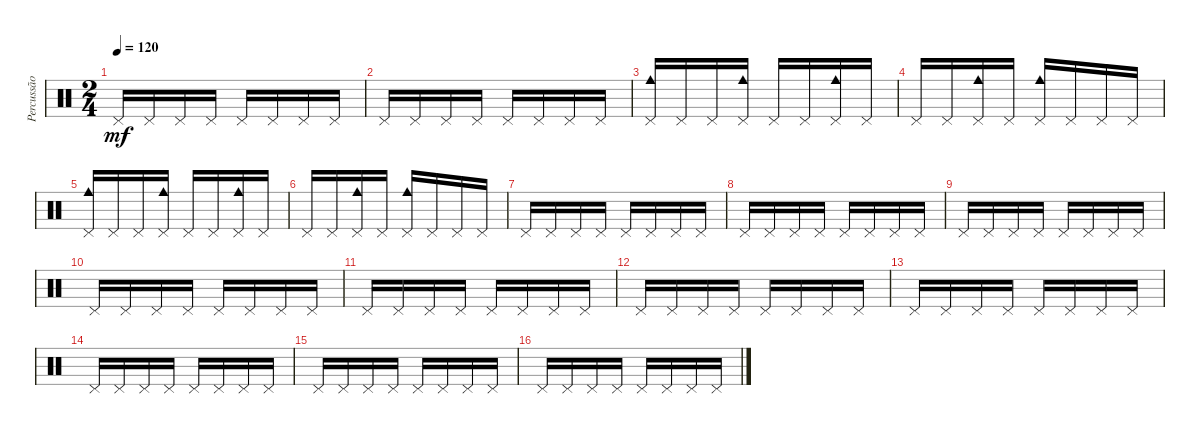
\track ("Percussão" "Percussão") {instrument percussion}
\staff {score}
\articulation defaults
\ts (2 4)
\tempo 120
\clef neutral
\ks c "Pedal Hi-Hat (hit)".16{dy mf} "Pedal Hi-Hat (hit)".16 "Pedal Hi-Hat (hit)".16 "Pedal Hi-Hat (hit)".16 "Pedal Hi-Hat (hit)".16 "Pedal Hi-Hat (hit)".16 "Pedal Hi-Hat (hit)".16 "Pedal Hi-Hat (hit)".16
|
"Pedal Hi-Hat (hit)".16 "Pedal Hi-Hat (hit)".16 "Pedal Hi-Hat (hit)".16 "Pedal Hi-Hat (hit)".16 "Pedal Hi-Hat (hit)".16 "Pedal Hi-Hat (hit)".16 "Pedal Hi-Hat (hit)".16 "Pedal Hi-Hat (hit)".16 |
("Pedal Hi-Hat (hit)" "Cowbell medium (hit)").16 "Pedal Hi-Hat (hit)".16 "Pedal Hi-Hat (hit)".16 ("Pedal Hi-Hat (hit)" "Cowbell medium (hit)").16 "Pedal Hi-Hat (hit)".16 "Pedal Hi-Hat (hit)".16 ("Pedal Hi-Hat (hit)" "Cowbell medium (hit)").16 "Pedal Hi-Hat (hit)".16 |
"Pedal Hi-Hat (hit)".16 "Pedal Hi-Hat (hit)".16 ("Pedal Hi-Hat (hit)" "Cowbell medium (hit)").16 "Pedal Hi-Hat (hit)".16 ("Pedal Hi-Hat (hit)" "Cowbell medium (hit)").16 "Pedal Hi-Hat (hit)".16 "Pedal Hi-Hat (hit)".16 "Pedal Hi-Hat (hit)".16 |
("Pedal Hi-Hat (hit)" "Cowbell medium (hit)").16 "Pedal Hi-Hat (hit)".16 "Pedal Hi-Hat (hit)".16 ("Pedal Hi-Hat (hit)" "Cowbell medium (hit)").16 "Pedal Hi-Hat (hit)".16 "Pedal Hi-Hat (hit)".16 ("Pedal Hi-Hat (hit)" "Cowbell medium (hit)").16 "Pedal Hi-Hat (hit)".16 |
"Pedal Hi-Hat (hit)".16 "Pedal Hi-Hat (hit)".16 ("Pedal Hi-Hat (hit)" "Cowbell medium (hit)").16 "Pedal Hi-Hat (hit)".16 ("Pedal Hi-Hat (hit)" "Cowbell medium (hit)").16 "Pedal Hi-Hat (hit)".16 "Pedal Hi-Hat (hit)".16 "Pedal Hi-Hat (hit)".16 |
"Pedal Hi-Hat (hit)".16 "Pedal Hi-Hat (hit)".16 "Pedal Hi-Hat (hit)".16 "Pedal Hi-Hat (hit)".16 "Pedal Hi-Hat (hit)".16 "Pedal Hi-Hat (hit)".16 "Pedal Hi-Hat (hit)".16 "Pedal Hi-Hat (hit)".16 |
"Pedal Hi-Hat (hit)".16 "Pedal Hi-Hat (hit)".16 "Pedal Hi-Hat (hit)".16 "Pedal Hi-Hat (hit)".16 "Pedal Hi-Hat (hit)".16 "Pedal Hi-Hat (hit)".16 "Pedal Hi-Hat (hit)".16 "Pedal Hi-Hat (hit)".16 |
"Pedal Hi-Hat (hit)".16 "Pedal Hi-Hat (hit)".16 "Pedal Hi-Hat (hit)".16 "Pedal Hi-Hat (hit)".16 "Pedal Hi-Hat (hit)".16 "Pedal Hi-Hat (hit)".16 "Pedal Hi-Hat (hit)".16 "Pedal Hi-Hat (hit)".16 |
"Pedal Hi-Hat (hit)".16 "Pedal Hi-Hat (hit)".16 "Pedal Hi-Hat (hit)".16 "Pedal Hi-Hat (hit)".16 "Pedal Hi-Hat (hit)".16 "Pedal Hi-Hat (hit)".16 "Pedal Hi-Hat (hit)".16 "Pedal Hi-Hat (hit)".16 |
"Pedal Hi-Hat (hit)".16 "Pedal Hi-Hat (hit)".16 "Pedal Hi-Hat (hit)".16 "Pedal Hi-Hat (hit)".16 "Pedal Hi-Hat (hit)".16 "Pedal Hi-Hat (hit)".16 "Pedal Hi-Hat (hit)".16 "Pedal Hi-Hat (hit)".16 |
"Pedal Hi-Hat (hit)".16 "Pedal Hi-Hat (hit)".16 "Pedal Hi-Hat (hit)".16 "Pedal Hi-Hat (hit)".16 "Pedal Hi-Hat (hit)".16 "Pedal Hi-Hat (hit)".16 "Pedal Hi-Hat (hit)".16 "Pedal Hi-Hat (hit)".16 |
"Pedal Hi-Hat (hit)".16 "Pedal Hi-Hat (hit)".16 "Pedal Hi-Hat (hit)".16 "Pedal Hi-Hat (hit)".16 "Pedal Hi-Hat (hit)".16 "Pedal Hi-Hat (hit)".16 "Pedal Hi-Hat (hit)".16 "Pedal Hi-Hat (hit)".16 |
"Pedal Hi-Hat (hit)".16 "Pedal Hi-Hat (hit)".16 "Pedal Hi-Hat (hit)".16 "Pedal Hi-Hat (hit)".16 "Pedal Hi-Hat (hit)".16 "Pedal Hi-Hat (hit)".16 "Pedal Hi-Hat (hit)".16 "Pedal Hi-Hat (hit)".16 |
"Pedal Hi-Hat (hit)".16 "Pedal Hi-Hat (hit)".16 "Pedal Hi-Hat (hit)".16 "Pedal Hi-Hat (hit)".16 "Pedal Hi-Hat (hit)".16 "Pedal Hi-Hat (hit)".16 "Pedal Hi-Hat (hit)".16 "Pedal Hi-Hat (hit)".16 |
"Pedal Hi-Hat (hit)".16 "Pedal Hi-Hat (hit)".16 "Pedal Hi-Hat (hit)".16 "Pedal Hi-Hat (hit)".16 "Pedal Hi-Hat (hit)".16 "Pedal Hi-Hat (hit)".16 "Pedal Hi-Hat (hit)".16 "Pedal Hi-Hat (hit)".16
